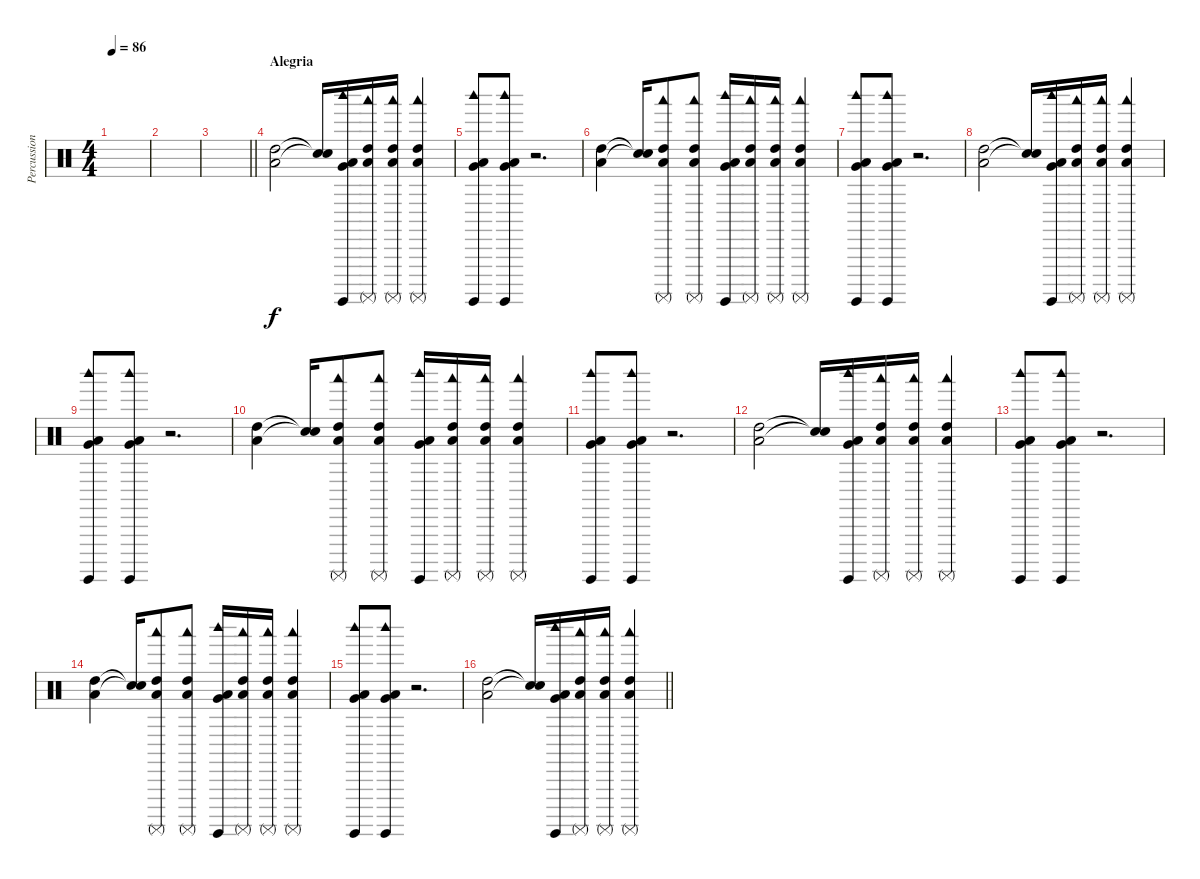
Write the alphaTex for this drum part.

\track ("Percussion 2" "Percussion") {instrument percussion}
\staff {score}
\articulation defaults
\ts (4 4)
\tempo 86
\clef neutral
\ks c
|
|
\barLineRight lightlight
|
\section ("" "Alegria")
("High Tom (hit)" "Low Tom (hit)").2 ("Snare (hit)"{t} "Snare (hit)"{t}).16 ("Low Tom (hit)" "Woodblock high (hit)" "Surdo (hit)" "Very Low Tom (hit)").16 ("High Tom (hit)" "Woodblock low (hit)" "Surdo (mute)" "Low Tom (hit)").16 ("High Tom (hit)" "Woodblock low (hit)" "Surdo (mute)" "Low Tom (hit)").16 ("High Tom (hit)" "Woodblock low (hit)" "Surdo (mute)" "Low Tom (hit)").4 |
("Low Tom (hit)" "Woodblock high (hit)" "Surdo (hit)" "Very Low Tom (hit)").8 ("Low Tom (hit)" "Woodblock high (hit)" "Surdo (hit)" "Very Low Tom (hit)").8 r.2{d} |
("High Tom (hit)" "Low Tom (hit)").4 ("Snare (hit)"{t} "Snare (hit)"{t}).16 ("High Tom (hit)" "Woodblock low (hit)" "Surdo (mute)" "Low Tom (hit)").8 ("High Tom (hit)" "Woodblock low (hit)" "Surdo (mute)" "Low Tom (hit)").8 ("Low Tom (hit)" "Woodblock high (hit)" "Surdo (hit)" "Very Low Tom (hit)").16 ("High Tom (hit)" "Woodblock low (hit)" "Surdo (mute)" "Low Tom (hit)").16 ("High Tom (hit)" "Woodblock low (hit)" "Surdo (mute)" "Low Tom (hit)").16 ("High Tom (hit)" "Woodblock low (hit)" "Surdo (mute)" "Low Tom (hit)").4 |
("Low Tom (hit)" "Woodblock high (hit)" "Surdo (hit)" "Very Low Tom (hit)").8 ("Low Tom (hit)" "Woodblock high (hit)" "Surdo (hit)" "Very Low Tom (hit)").8 r.2{d} |
("High Tom (hit)" "Low Tom (hit)").2 ("Snare (hit)"{t} "Snare (hit)"{t}).16 ("Low Tom (hit)" "Woodblock high (hit)" "Surdo (hit)" "Very Low Tom (hit)").16 ("High Tom (hit)" "Woodblock low (hit)" "Surdo (mute)" "Low Tom (hit)").16 ("High Tom (hit)" "Woodblock low (hit)" "Surdo (mute)" "Low Tom (hit)").16 ("High Tom (hit)" "Woodblock low (hit)" "Surdo (mute)" "Low Tom (hit)").4 |
("Low Tom (hit)" "Woodblock high (hit)" "Surdo (hit)" "Very Low Tom (hit)").8 ("Low Tom (hit)" "Woodblock high (hit)" "Surdo (hit)" "Very Low Tom (hit)").8 r.2{d} |
("High Tom (hit)" "Low Tom (hit)").4 ("Snare (hit)"{t} "Snare (hit)"{t}).16 ("High Tom (hit)" "Woodblock low (hit)" "Surdo (mute)" "Low Tom (hit)").8 ("High Tom (hit)" "Woodblock low (hit)" "Surdo (mute)" "Low Tom (hit)").8 ("Low Tom (hit)" "Woodblock high (hit)" "Surdo (hit)" "Very Low Tom (hit)").16 ("High Tom (hit)" "Woodblock low (hit)" "Surdo (mute)" "Low Tom (hit)").16 ("High Tom (hit)" "Woodblock low (hit)" "Surdo (mute)" "Low Tom (hit)").16 ("High Tom (hit)" "Woodblock low (hit)" "Surdo (mute)" "Low Tom (hit)").4 |
("Low Tom (hit)" "Woodblock high (hit)" "Surdo (hit)" "Very Low Tom (hit)").8 ("Low Tom (hit)" "Woodblock high (hit)" "Surdo (hit)" "Very Low Tom (hit)").8 r.2{d} |
("High Tom (hit)" "Low Tom (hit)").2 ("Snare (hit)"{t} "Snare (hit)"{t}).16 ("Low Tom (hit)" "Woodblock high (hit)" "Surdo (hit)" "Very Low Tom (hit)").16 ("High Tom (hit)" "Woodblock low (hit)" "Surdo (mute)" "Low Tom (hit)").16 ("High Tom (hit)" "Woodblock low (hit)" "Surdo (mute)" "Low Tom (hit)").16 ("High Tom (hit)" "Woodblock low (hit)" "Surdo (mute)" "Low Tom (hit)").4 |
("Low Tom (hit)" "Woodblock high (hit)" "Surdo (hit)" "Very Low Tom (hit)").8 ("Low Tom (hit)" "Woodblock high (hit)" "Surdo (hit)" "Very Low Tom (hit)").8 r.2{d} |
("High Tom (hit)" "Low Tom (hit)").4 ("Snare (hit)"{t} "Snare (hit)"{t}).16 ("High Tom (hit)" "Woodblock low (hit)" "Surdo (mute)" "Low Tom (hit)").8 ("High Tom (hit)" "Woodblock low (hit)" "Surdo (mute)" "Low Tom (hit)").8 ("Low Tom (hit)" "Woodblock high (hit)" "Surdo (hit)" "Very Low Tom (hit)").16 ("High Tom (hit)" "Woodblock low (hit)" "Surdo (mute)" "Low Tom (hit)").16 ("High Tom (hit)" "Woodblock low (hit)" "Surdo (mute)" "Low Tom (hit)").16 ("High Tom (hit)" "Woodblock low (hit)" "Surdo (mute)" "Low Tom (hit)").4 |
("Low Tom (hit)" "Woodblock high (hit)" "Surdo (hit)" "Very Low Tom (hit)").8 ("Low Tom (hit)" "Woodblock high (hit)" "Surdo (hit)" "Very Low Tom (hit)").8 r.2{d} |
\barLineRight lightlight
("High Tom (hit)" "Low Tom (hit)").2 ("Snare (hit)"{t} "Snare (hit)"{t}).16 ("Low Tom (hit)" "Woodblock high (hit)" "Surdo (hit)" "Very Low Tom (hit)").16 ("High Tom (hit)" "Woodblock low (hit)" "Surdo (mute)" "Low Tom (hit)").16 ("High Tom (hit)" "Woodblock low (hit)" "Surdo (mute)" "Low Tom (hit)").16 ("High Tom (hit)" "Woodblock low (hit)" "Surdo (mute)" "Low Tom (hit)").4
